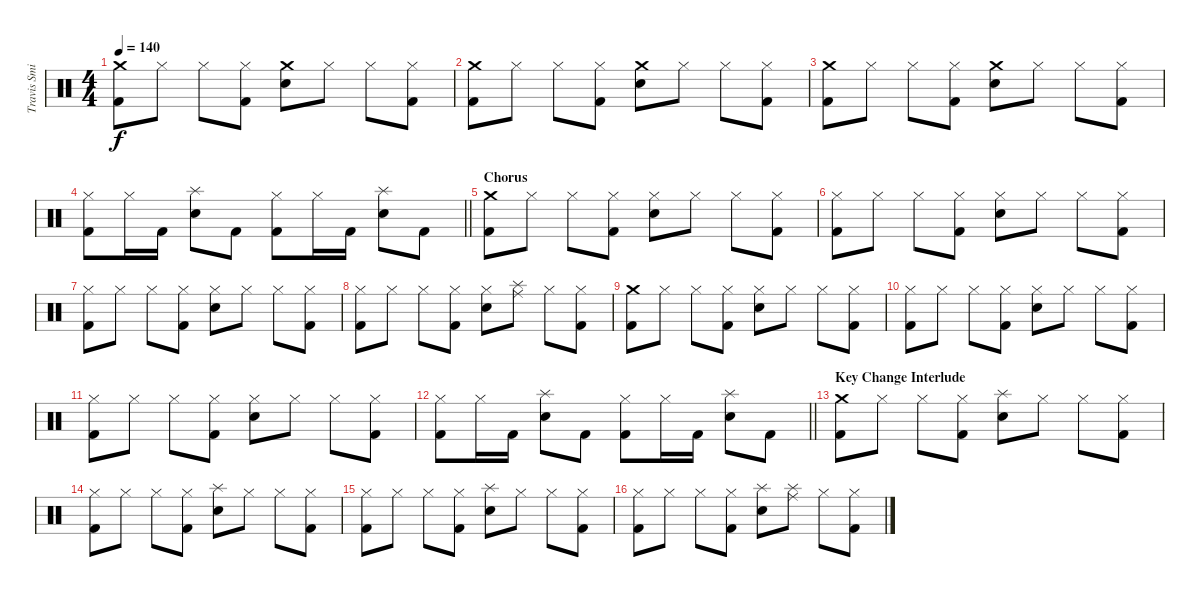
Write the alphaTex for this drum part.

\track ("Travis Smith" "Travis Smi") {instrument percussion}
\staff {score}
\articulation defaults
\ts (4 4)
\tempo 140
\clef neutral
\ks c
("Crash medium (hit)" "Kick (hit) 2").8{dy f} "Hi-Hat (closed)".8 "Hi-Hat (closed)".8 ("Hi-Hat (closed)" "Kick (hit) 2").8 ("Crash medium (hit)" "Electric Snare (hit)").8 "Hi-Hat (closed)".8 "Hi-Hat (closed)".8 ("Hi-Hat (closed)" "Kick (hit) 2").8 |
("Crash medium (hit)" "Kick (hit) 2").8 "Hi-Hat (closed)".8 "Hi-Hat (closed)".8 ("Hi-Hat (closed)" "Kick (hit) 2").8 ("Crash medium (hit)" "Electric Snare (hit)").8 "Hi-Hat (closed)".8 "Hi-Hat (closed)".8 ("Hi-Hat (closed)" "Kick (hit) 2").8 |
("Crash medium (hit)" "Kick (hit) 2").8 "Hi-Hat (closed)".8 "Hi-Hat (closed)".8 ("Hi-Hat (closed)" "Kick (hit) 2").8 ("Crash medium (hit)" "Electric Snare (hit)").8 "Hi-Hat (closed)".8 "Hi-Hat (closed)".8 ("Hi-Hat (closed)" "Kick (hit) 2").8 |
\barLineRight lightlight
("Hi-Hat (closed)" "Kick (hit) 2").8 "Hi-Hat (closed)".16 "Kick (hit) 2".16 ("Splash (hit)" "Electric Snare (hit)").8 "Kick (hit) 2".8 ("Hi-Hat (closed)" "Kick (hit) 2").8 "Hi-Hat (closed)".16 "Kick (hit) 2".16 ("Splash (hit)" "Electric Snare (hit)").8 "Kick (hit) 2".8 |
\section ("" "Chorus")
("Crash medium (hit)" "Kick (hit) 2").8 "Hi-Hat (closed)".8 "Hi-Hat (closed)".8 ("Hi-Hat (closed)" "Kick (hit) 2").8 ("Hi-Hat (closed)" "Electric Snare (hit)").8 "Hi-Hat (closed)".8 "Hi-Hat (closed)".8 ("Hi-Hat (closed)" "Kick (hit) 2").8 |
("Hi-Hat (closed)" "Kick (hit) 2").8 "Hi-Hat (closed)".8 "Hi-Hat (closed)".8 ("Hi-Hat (closed)" "Kick (hit) 2").8 ("Hi-Hat (closed)" "Electric Snare (hit)").8 "Hi-Hat (closed)".8 "Hi-Hat (closed)".8 ("Hi-Hat (closed)" "Kick (hit) 2").8 |
("Hi-Hat (closed)" "Kick (hit) 2").8 "Hi-Hat (closed)".8 "Hi-Hat (closed)".8 ("Hi-Hat (closed)" "Kick (hit) 2").8 ("Hi-Hat (closed)" "Electric Snare (hit)").8 "Hi-Hat (closed)".8 "Hi-Hat (closed)".8 ("Hi-Hat (closed)" "Kick (hit) 2").8 |
("Hi-Hat (closed)" "Kick (hit) 2").8 "Hi-Hat (closed)".8 "Hi-Hat (closed)".8 ("Hi-Hat (closed)" "Kick (hit) 2").8 ("Hi-Hat (closed)" "Electric Snare (hit)").8 ("Ride (middle)" "Splash (hit)").8 "Hi-Hat (closed)".8 ("Hi-Hat (closed)" "Kick (hit) 2").8 |
("Crash medium (hit)" "Kick (hit) 2").8 "Hi-Hat (closed)".8 "Hi-Hat (closed)".8 ("Hi-Hat (closed)" "Kick (hit) 2").8 ("Hi-Hat (closed)" "Electric Snare (hit)").8 "Hi-Hat (closed)".8 "Hi-Hat (closed)".8 ("Hi-Hat (closed)" "Kick (hit) 2").8 |
("Hi-Hat (closed)" "Kick (hit) 2").8 "Hi-Hat (closed)".8 "Hi-Hat (closed)".8 ("Hi-Hat (closed)" "Kick (hit) 2").8 ("Hi-Hat (closed)" "Electric Snare (hit)").8 "Hi-Hat (closed)".8 "Hi-Hat (closed)".8 ("Hi-Hat (closed)" "Kick (hit) 2").8 |
("Hi-Hat (closed)" "Kick (hit) 2").8 "Hi-Hat (closed)".8 "Hi-Hat (closed)".8 ("Hi-Hat (closed)" "Kick (hit) 2").8 ("Hi-Hat (closed)" "Electric Snare (hit)").8 "Hi-Hat (closed)".8 "Hi-Hat (closed)".8 ("Hi-Hat (closed)" "Kick (hit) 2").8 |
\barLineRight lightlight
("Hi-Hat (closed)" "Kick (hit) 2").8 "Hi-Hat (closed)".16 "Kick (hit) 2".16 ("Splash (hit)" "Electric Snare (hit)").8 "Kick (hit) 2".8 ("Hi-Hat (closed)" "Kick (hit) 2").8 "Hi-Hat (closed)".16 "Kick (hit) 2".16 ("Splash (hit)" "Electric Snare (hit)").8 "Kick (hit) 2".8 |
\section ("" "Key Change Interlude")
("Crash medium (hit)" "Kick (hit) 2").8 "Hi-Hat (closed)".8 "Hi-Hat (closed)".8 ("Hi-Hat (closed)" "Kick (hit) 2").8 ("Splash (hit)" "Electric Snare (hit)").8 "Hi-Hat (closed)".8 "Hi-Hat (closed)".8 ("Hi-Hat (closed)" "Kick (hit) 2").8 |
("Hi-Hat (closed)" "Kick (hit) 2").8 "Hi-Hat (closed)".8 "Hi-Hat (closed)".8 ("Hi-Hat (closed)" "Kick (hit) 2").8 ("Splash (hit)" "Electric Snare (hit)").8 "Hi-Hat (closed)".8 "Hi-Hat (closed)".8 ("Hi-Hat (closed)" "Kick (hit) 2").8 |
("Hi-Hat (closed)" "Kick (hit) 2").8 "Hi-Hat (closed)".8 "Hi-Hat (closed)".8 ("Hi-Hat (closed)" "Kick (hit) 2").8 ("Splash (hit)" "Electric Snare (hit)").8 "Hi-Hat (closed)".8 "Hi-Hat (closed)".8 ("Hi-Hat (closed)" "Kick (hit) 2").8 |
("Hi-Hat (closed)" "Kick (hit) 2").8 "Hi-Hat (closed)".8 "Hi-Hat (closed)".8 ("Hi-Hat (closed)" "Kick (hit) 2").8 ("Splash (hit)" "Electric Snare (hit)").8 ("Ride (middle)" "Splash (hit)").8 "Hi-Hat (closed)".8 ("Hi-Hat (closed)" "Kick (hit) 2").8
